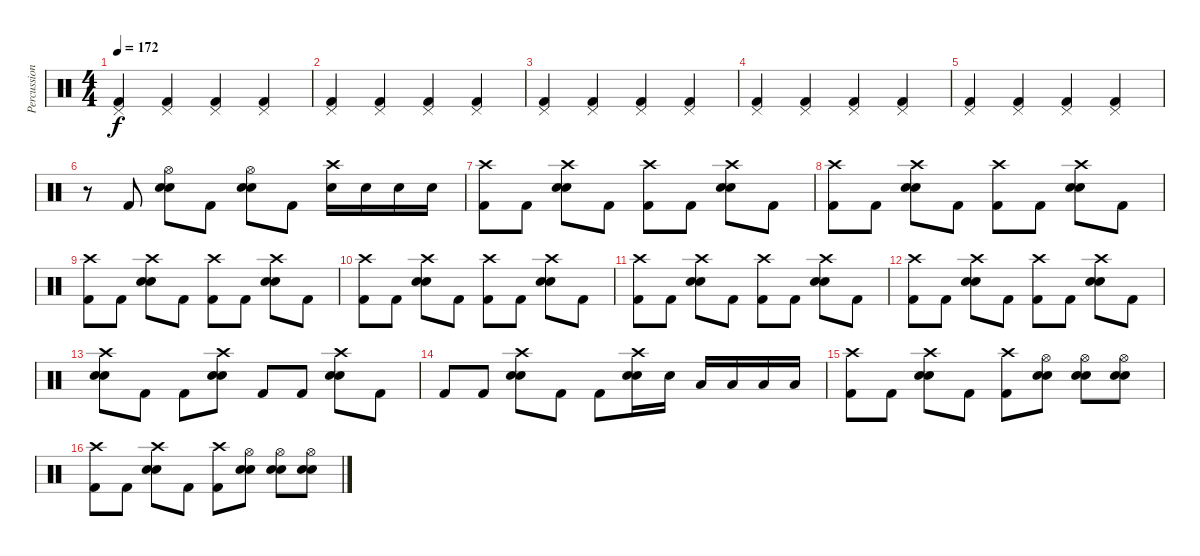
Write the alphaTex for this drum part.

\track ("Percussion" "Percussion") {instrument percussion}
\staff {score}
\articulation defaults
\ts (4 4)
\tempo 172
\clef neutral
\ks c
("Pedal Hi-Hat (hit)" "Kick (hit) 2").4{dy f} ("Pedal Hi-Hat (hit)" "Kick (hit) 2").4 ("Pedal Hi-Hat (hit)" "Kick (hit) 2").4 ("Pedal Hi-Hat (hit)" "Kick (hit) 2").4 |
("Pedal Hi-Hat (hit)" "Kick (hit) 2").4 ("Pedal Hi-Hat (hit)" "Kick (hit) 2").4 ("Pedal Hi-Hat (hit)" "Kick (hit) 2").4 ("Pedal Hi-Hat (hit)" "Kick (hit) 2").4 |
("Pedal Hi-Hat (hit)" "Kick (hit) 2").4 ("Pedal Hi-Hat (hit)" "Kick (hit) 2").4 ("Pedal Hi-Hat (hit)" "Kick (hit) 2").4 ("Pedal Hi-Hat (hit)" "Kick (hit) 2").4 |
("Pedal Hi-Hat (hit)" "Kick (hit) 2").4 ("Pedal Hi-Hat (hit)" "Kick (hit) 2").4 ("Pedal Hi-Hat (hit)" "Kick (hit) 2").4 ("Pedal Hi-Hat (hit)" "Kick (hit) 2").4 |
("Pedal Hi-Hat (hit)" "Kick (hit) 2").4 ("Pedal Hi-Hat (hit)" "Kick (hit) 2").4 ("Pedal Hi-Hat (hit)" "Kick (hit) 2").4 ("Pedal Hi-Hat (hit)" "Kick (hit) 2").4 |
r.8 "Kick (hit) 2".8 ("Hi-Hat (open)" "Snare (hit) 2" "Electric Snare (hit)").8 "Kick (hit) 2".8 ("Hi-Hat (open)" "Snare (hit) 2" "Electric Snare (hit)").8 "Kick (hit) 2".8 ("Crash high (hit)" "Snare (hit) 2").16 "Snare (hit) 2".16 "Snare (hit) 2".16 "Snare (hit) 2".16 |
("Crash high (hit)" "Kick (hit) 2").8 "Kick (hit) 2".8 ("Crash high (hit)" "Snare (hit) 2" "Electric Snare (hit)").8 "Kick (hit) 2".8 ("Crash high (hit)" "Kick (hit) 2").8 "Kick (hit) 2".8 ("Crash high (hit)" "Snare (hit) 2" "Electric Snare (hit)").8 "Kick (hit) 2".8 |
("Crash high (hit)" "Kick (hit) 2").8 "Kick (hit) 2".8 ("Crash high (hit)" "Snare (hit) 2" "Electric Snare (hit)").8 "Kick (hit) 2".8 ("Crash high (hit)" "Kick (hit) 2").8 "Kick (hit) 2".8 ("Crash high (hit)" "Snare (hit) 2" "Electric Snare (hit)").8 "Kick (hit) 2".8 |
("Crash high (hit)" "Kick (hit) 2").8 "Kick (hit) 2".8 ("Crash high (hit)" "Snare (hit) 2" "Electric Snare (hit)").8 "Kick (hit) 2".8 ("Crash high (hit)" "Kick (hit) 2").8 "Kick (hit) 2".8 ("Crash high (hit)" "Snare (hit) 2" "Electric Snare (hit)").8 "Kick (hit) 2".8 |
("Crash high (hit)" "Kick (hit) 2").8 "Kick (hit) 2".8 ("Crash high (hit)" "Snare (hit) 2" "Electric Snare (hit)").8 "Kick (hit) 2".8 ("Crash high (hit)" "Kick (hit) 2").8 "Kick (hit) 2".8 ("Crash high (hit)" "Snare (hit) 2" "Electric Snare (hit)").8 "Kick (hit) 2".8 |
("Crash high (hit)" "Kick (hit) 2").8 "Kick (hit) 2".8 ("Crash high (hit)" "Snare (hit) 2" "Electric Snare (hit)").8 "Kick (hit) 2".8 ("Crash high (hit)" "Kick (hit) 2").8 "Kick (hit) 2".8 ("Crash high (hit)" "Snare (hit) 2" "Electric Snare (hit)").8 "Kick (hit) 2".8 |
("Crash high (hit)" "Kick (hit) 2").8 "Kick (hit) 2".8 ("Crash high (hit)" "Snare (hit) 2" "Electric Snare (hit)").8 "Kick (hit) 2".8 ("Crash high (hit)" "Kick (hit) 2").8 "Kick (hit) 2".8 ("Crash high (hit)" "Snare (hit) 2" "Electric Snare (hit)").8 "Kick (hit) 2".8 |
("Crash high (hit)" "Snare (hit) 2" "Electric Snare (hit)").8 "Kick (hit) 2".8 "Kick (hit) 2".8 ("Crash high (hit)" "Snare (hit) 2" "Electric Snare (hit)").8 "Kick (hit) 2".8 "Kick (hit) 2".8 ("Crash high (hit)" "Snare (hit) 2" "Electric Snare (hit)").8 "Kick (hit) 2".8 |
"Kick (hit) 2".8 "Kick (hit) 2".8 ("Crash high (hit)" "Snare (hit) 2" "Electric Snare (hit)").8 "Kick (hit) 2".8 "Kick (hit) 2".8 ("Crash high (hit)" "Snare (hit) 2" "Electric Snare (hit)").16 "Electric Snare (hit)".16 "Low Tom (hit)".16 "Low Tom (hit)".16 "Low Floor Tom (hit)".16 "Low Floor Tom (hit)".16 |
("Crash high (hit)" "Kick (hit) 2").8 "Kick (hit) 2".8 ("Crash high (hit)" "Snare (hit) 2" "Electric Snare (hit)").8 "Kick (hit) 2".8 ("Crash high (hit)" "Kick (hit) 2").8 ("Hi-Hat (open)" "Snare (hit) 2" "Electric Snare (hit)").8 ("Hi-Hat (open)" "Snare (hit) 2" "Electric Snare (hit)").8 ("Hi-Hat (open)" "Snare (hit) 2" "Electric Snare (hit)").8 |
("Crash high (hit)" "Kick (hit) 2").8 "Kick (hit) 2".8 ("Crash high (hit)" "Snare (hit) 2" "Electric Snare (hit)").8 "Kick (hit) 2".8 ("Crash high (hit)" "Kick (hit) 2").8 ("Hi-Hat (open)" "Snare (hit) 2" "Electric Snare (hit)").8 ("Hi-Hat (open)" "Snare (hit) 2" "Electric Snare (hit)").8 ("Hi-Hat (open)" "Snare (hit) 2" "Electric Snare (hit)").8
